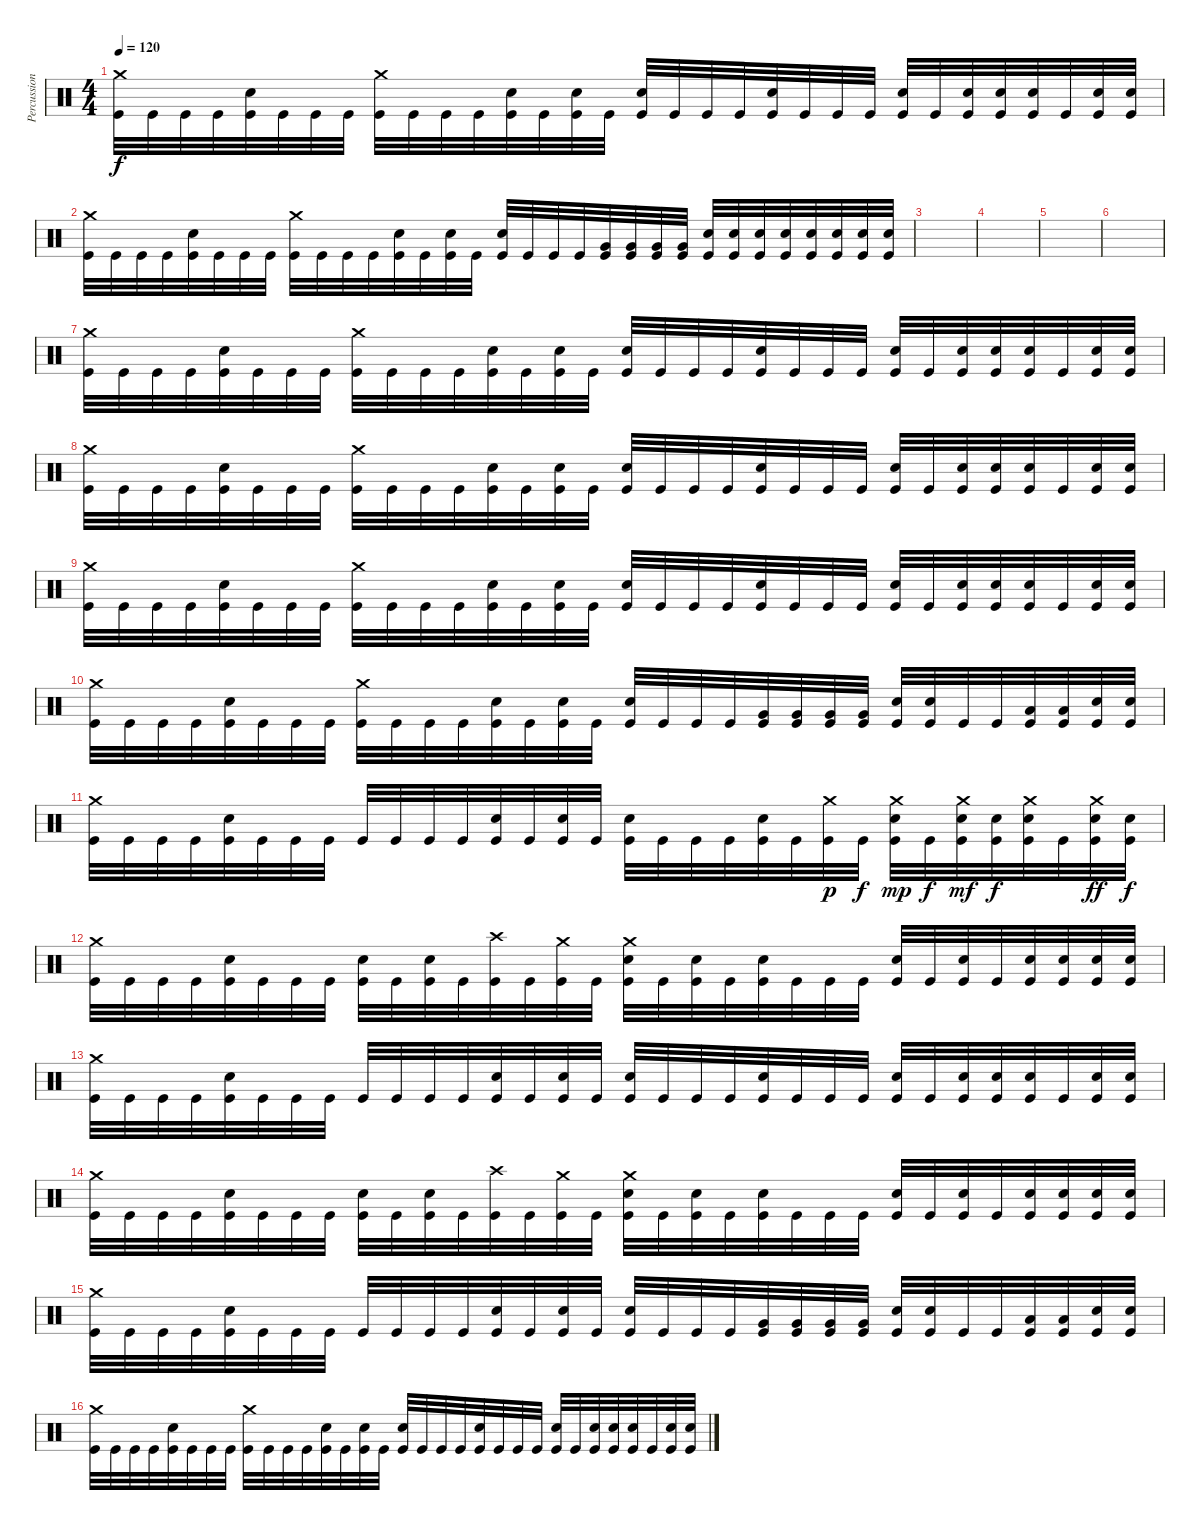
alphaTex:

\track ("Percussion" "Percussion") {instrument percussion}
\staff {score}
\articulation defaults
\ts (4 4)
\tempo 120
\clef neutral
\ks c
("Crash medium (hit)" "Kick (hit)").32{dy f} "Kick (hit)".32 "Kick (hit)".32 "Kick (hit)".32 ("Electric Snare (hit)" "Kick (hit)").32 "Kick (hit)".32 "Kick (hit)".32 "Kick (hit)".32 ("Crash medium (hit)" "Kick (hit)").32 "Kick (hit)".32 "Kick (hit)".32 "Kick (hit)".32 ("Electric Snare (hit)" "Kick (hit)").32 "Kick (hit)".32 ("Electric Snare (hit)" "Kick (hit)").32 "Kick (hit)".32 ("Electric Snare (hit)" "Kick (hit)").32 "Kick (hit)".32 "Kick (hit)".32 "Kick (hit)".32 ("Electric Snare (hit)" "Kick (hit)").32 "Kick (hit)".32 "Kick (hit)".32 "Kick (hit)".32 ("Electric Snare (hit)" "Kick (hit)").32 "Kick (hit)".32 ("Electric Snare (hit)" "Kick (hit)").32 ("Electric Snare (hit)" "Kick (hit)").32 ("Electric Snare (hit)" "Kick (hit)").32 "Kick (hit)".32 ("Electric Snare (hit)" "Kick (hit)").32 ("Electric Snare (hit)" "Kick (hit)").32 |
("Crash medium (hit)" "Kick (hit)").32 "Kick (hit)".32 "Kick (hit)".32 "Kick (hit)".32 ("Electric Snare (hit)" "Kick (hit)").32 "Kick (hit)".32 "Kick (hit)".32 "Kick (hit)".32 ("Crash medium (hit)" "Kick (hit)").32 "Kick (hit)".32 "Kick (hit)".32 "Kick (hit)".32 ("Electric Snare (hit)" "Kick (hit)").32 "Kick (hit)".32 ("Electric Snare (hit)" "Kick (hit)").32 "Kick (hit)".32 ("Electric Snare (hit)" "Kick (hit)").32 "Kick (hit)".32 "Kick (hit)".32 "Kick (hit)".32 ("Very Low Tom (hit)" "Kick (hit)").32 ("Very Low Tom (hit)" "Kick (hit)").32 ("Very Low Tom (hit)" "Kick (hit)").32 ("Very Low Tom (hit)" "Kick (hit)").32 ("Electric Snare (hit)" "Kick (hit)").32 ("Electric Snare (hit)" "Kick (hit)").32 ("Electric Snare (hit)" "Kick (hit)").32 ("Electric Snare (hit)" "Kick (hit)").32 ("Electric Snare (hit)" "Kick (hit)").32 ("Electric Snare (hit)" "Kick (hit)").32 ("Electric Snare (hit)" "Kick (hit)").32 ("Electric Snare (hit)" "Kick (hit)").32 |
|
|
|
|
("Crash medium (hit)" "Kick (hit)").32 "Kick (hit)".32 "Kick (hit)".32 "Kick (hit)".32 ("Electric Snare (hit)" "Kick (hit)").32 "Kick (hit)".32 "Kick (hit)".32 "Kick (hit)".32 ("Crash medium (hit)" "Kick (hit)").32 "Kick (hit)".32 "Kick (hit)".32 "Kick (hit)".32 ("Electric Snare (hit)" "Kick (hit)").32 "Kick (hit)".32 ("Electric Snare (hit)" "Kick (hit)").32 "Kick (hit)".32 ("Electric Snare (hit)" "Kick (hit)").32 "Kick (hit)".32 "Kick (hit)".32 "Kick (hit)".32 ("Electric Snare (hit)" "Kick (hit)").32 "Kick (hit)".32 "Kick (hit)".32 "Kick (hit)".32 ("Electric Snare (hit)" "Kick (hit)").32 "Kick (hit)".32 ("Electric Snare (hit)" "Kick (hit)").32 ("Electric Snare (hit)" "Kick (hit)").32 ("Electric Snare (hit)" "Kick (hit)").32 "Kick (hit)".32 ("Electric Snare (hit)" "Kick (hit)").32 ("Electric Snare (hit)" "Kick (hit)").32 |
("Crash medium (hit)" "Kick (hit)").32 "Kick (hit)".32 "Kick (hit)".32 "Kick (hit)".32 ("Electric Snare (hit)" "Kick (hit)").32 "Kick (hit)".32 "Kick (hit)".32 "Kick (hit)".32 ("Crash medium (hit)" "Kick (hit)").32 "Kick (hit)".32 "Kick (hit)".32 "Kick (hit)".32 ("Electric Snare (hit)" "Kick (hit)").32 "Kick (hit)".32 ("Electric Snare (hit)" "Kick (hit)").32 "Kick (hit)".32 ("Electric Snare (hit)" "Kick (hit)").32 "Kick (hit)".32 "Kick (hit)".32 "Kick (hit)".32 ("Electric Snare (hit)" "Kick (hit)").32 "Kick (hit)".32 "Kick (hit)".32 "Kick (hit)".32 ("Electric Snare (hit)" "Kick (hit)").32 "Kick (hit)".32 ("Electric Snare (hit)" "Kick (hit)").32 ("Electric Snare (hit)" "Kick (hit)").32 ("Electric Snare (hit)" "Kick (hit)").32 "Kick (hit)".32 ("Electric Snare (hit)" "Kick (hit)").32 ("Electric Snare (hit)" "Kick (hit)").32 |
("Crash medium (hit)" "Kick (hit)").32 "Kick (hit)".32 "Kick (hit)".32 "Kick (hit)".32 ("Electric Snare (hit)" "Kick (hit)").32 "Kick (hit)".32 "Kick (hit)".32 "Kick (hit)".32 ("Crash medium (hit)" "Kick (hit)").32 "Kick (hit)".32 "Kick (hit)".32 "Kick (hit)".32 ("Electric Snare (hit)" "Kick (hit)").32 "Kick (hit)".32 ("Electric Snare (hit)" "Kick (hit)").32 "Kick (hit)".32 ("Electric Snare (hit)" "Kick (hit)").32 "Kick (hit)".32 "Kick (hit)".32 "Kick (hit)".32 ("Electric Snare (hit)" "Kick (hit)").32 "Kick (hit)".32 "Kick (hit)".32 "Kick (hit)".32 ("Electric Snare (hit)" "Kick (hit)").32 "Kick (hit)".32 ("Electric Snare (hit)" "Kick (hit)").32 ("Electric Snare (hit)" "Kick (hit)").32 ("Electric Snare (hit)" "Kick (hit)").32 "Kick (hit)".32 ("Electric Snare (hit)" "Kick (hit)").32 ("Electric Snare (hit)" "Kick (hit)").32 |
("Crash medium (hit)" "Kick (hit)").32 "Kick (hit)".32 "Kick (hit)".32 "Kick (hit)".32 ("Electric Snare (hit)" "Kick (hit)").32 "Kick (hit)".32 "Kick (hit)".32 "Kick (hit)".32 ("Crash medium (hit)" "Kick (hit)").32 "Kick (hit)".32 "Kick (hit)".32 "Kick (hit)".32 ("Electric Snare (hit)" "Kick (hit)").32 "Kick (hit)".32 ("Electric Snare (hit)" "Kick (hit)").32 "Kick (hit)".32 ("Electric Snare (hit)" "Kick (hit)").32 "Kick (hit)".32 "Kick (hit)".32 "Kick (hit)".32 ("Very Low Tom (hit)" "Kick (hit)").32 ("Very Low Tom (hit)" "Kick (hit)").32 ("Very Low Tom (hit)" "Kick (hit)").32 ("Very Low Tom (hit)" "Kick (hit)").32 ("Snare (hit) 2" "Kick (hit)").32 ("Snare (hit) 2" "Kick (hit)").32 "Kick (hit)".32 "Kick (hit)".32 ("Low Floor Tom (hit)" "Kick (hit)").32 ("Low Floor Tom (hit)" "Kick (hit)").32 ("Electric Snare (hit)" "Kick (hit)").32 ("Electric Snare (hit)" "Kick (hit)").32 |
("Crash medium (hit)" "Kick (hit)").32 "Kick (hit)".32 "Kick (hit)".32 "Kick (hit)".32 ("Electric Snare (hit)" "Kick (hit)").32 "Kick (hit)".32 "Kick (hit)".32 "Kick (hit)".32 "Kick (hit)".32 "Kick (hit)".32 "Kick (hit)".32 "Kick (hit)".32 ("Electric Snare (hit)" "Kick (hit)").32 "Kick (hit)".32 ("Electric Snare (hit)" "Kick (hit)").32 "Kick (hit)".32 ("Electric Snare (hit)" "Kick (hit)").32 "Kick (hit)".32 "Kick (hit)".32 "Kick (hit)".32 ("Electric Snare (hit)" "Kick (hit)").32 "Kick (hit)".32 ("Crash medium (hit)" "Kick (hit)").32{dy p} "Kick (hit)".32{dy f} ("Crash medium (hit)" "Electric Snare (hit)" "Kick (hit)").32{dy mp} "Kick (hit)".32{dy f} ("Crash medium (hit)" "Electric Snare (hit)" "Kick (hit)").32{dy mf} ("Electric Snare (hit)" "Kick (hit)").32{dy f} ("Crash medium (hit)" "Electric Snare (hit)" "Kick (hit)").32 "Kick (hit)".32 ("Crash medium (hit)" "Electric Snare (hit)" "Kick (hit)").32{dy ff} ("Electric Snare (hit)" "Kick (hit)").32{dy f} |
("Crash medium (hit)" "Kick (hit)").32 "Kick (hit)".32 "Kick (hit)".32 "Kick (hit)".32 ("Electric Snare (hit)" "Kick (hit)").32 "Kick (hit)".32 "Kick (hit)".32 "Kick (hit)".32 ("Electric Snare (hit)" "Kick (hit)").32 "Kick (hit)".32 ("Electric Snare (hit)" "Kick (hit)").32 "Kick (hit)".32 ("Crash high (hit)" "Kick (hit)").32 "Kick (hit)".32 ("Crash medium (hit)" "Kick (hit)").32 "Kick (hit)".32 ("Crash medium (hit)" "Electric Snare (hit)" "Kick (hit)").32 "Kick (hit)".32 ("Electric Snare (hit)" "Kick (hit)").32 "Kick (hit)".32 ("Electric Snare (hit)" "Kick (hit)").32 "Kick (hit)".32 "Kick (hit)".32 "Kick (hit)".32 ("Electric Snare (hit)" "Kick (hit)").32 "Kick (hit)".32 ("Electric Snare (hit)" "Kick (hit)").32 "Kick (hit)".32 ("Electric Snare (hit)" "Kick (hit)").32 ("Electric Snare (hit)" "Kick (hit)").32 ("Electric Snare (hit)" "Kick (hit)").32 ("Electric Snare (hit)" "Kick (hit)").32 |
("Crash medium (hit)" "Kick (hit)").32 "Kick (hit)".32 "Kick (hit)".32 "Kick (hit)".32 ("Electric Snare (hit)" "Kick (hit)").32 "Kick (hit)".32 "Kick (hit)".32 "Kick (hit)".32 "Kick (hit)".32 "Kick (hit)".32 "Kick (hit)".32 "Kick (hit)".32 ("Electric Snare (hit)" "Kick (hit)").32 "Kick (hit)".32 ("Electric Snare (hit)" "Kick (hit)").32 "Kick (hit)".32 ("Electric Snare (hit)" "Kick (hit)").32 "Kick (hit)".32 "Kick (hit)".32 "Kick (hit)".32 ("Electric Snare (hit)" "Kick (hit)").32 "Kick (hit)".32 "Kick (hit)".32 "Kick (hit)".32 ("Electric Snare (hit)" "Kick (hit)").32 "Kick (hit)".32 ("Electric Snare (hit)" "Kick (hit)").32 ("Electric Snare (hit)" "Kick (hit)").32 ("Electric Snare (hit)" "Kick (hit)").32 "Kick (hit)".32 ("Electric Snare (hit)" "Kick (hit)").32 ("Electric Snare (hit)" "Kick (hit)").32 |
("Crash medium (hit)" "Kick (hit)").32 "Kick (hit)".32 "Kick (hit)".32 "Kick (hit)".32 ("Electric Snare (hit)" "Kick (hit)").32 "Kick (hit)".32 "Kick (hit)".32 "Kick (hit)".32 ("Electric Snare (hit)" "Kick (hit)").32 "Kick (hit)".32 ("Electric Snare (hit)" "Kick (hit)").32 "Kick (hit)".32 ("Crash high (hit)" "Kick (hit)").32 "Kick (hit)".32 ("Crash medium (hit)" "Kick (hit)").32 "Kick (hit)".32 ("Crash medium (hit)" "Electric Snare (hit)" "Kick (hit)").32 "Kick (hit)".32 ("Electric Snare (hit)" "Kick (hit)").32 "Kick (hit)".32 ("Electric Snare (hit)" "Kick (hit)").32 "Kick (hit)".32 "Kick (hit)".32 "Kick (hit)".32 ("Electric Snare (hit)" "Kick (hit)").32 "Kick (hit)".32 ("Electric Snare (hit)" "Kick (hit)").32 "Kick (hit)".32 ("Electric Snare (hit)" "Kick (hit)").32 ("Electric Snare (hit)" "Kick (hit)").32 ("Electric Snare (hit)" "Kick (hit)").32 ("Electric Snare (hit)" "Kick (hit)").32 |
("Crash medium (hit)" "Kick (hit)").32 "Kick (hit)".32 "Kick (hit)".32 "Kick (hit)".32 ("Electric Snare (hit)" "Kick (hit)").32 "Kick (hit)".32 "Kick (hit)".32 "Kick (hit)".32 "Kick (hit)".32 "Kick (hit)".32 "Kick (hit)".32 "Kick (hit)".32 ("Electric Snare (hit)" "Kick (hit)").32 "Kick (hit)".32 ("Electric Snare (hit)" "Kick (hit)").32 "Kick (hit)".32 ("Electric Snare (hit)" "Kick (hit)").32 "Kick (hit)".32 "Kick (hit)".32 "Kick (hit)".32 ("Very Low Tom (hit)" "Kick (hit)").32 ("Very Low Tom (hit)" "Kick (hit)").32 ("Very Low Tom (hit)" "Kick (hit)").32 ("Very Low Tom (hit)" "Kick (hit)").32 ("Snare (hit) 2" "Kick (hit)").32 ("Snare (hit) 2" "Kick (hit)").32 "Kick (hit)".32 "Kick (hit)".32 ("Low Floor Tom (hit)" "Kick (hit)").32 ("Low Floor Tom (hit)" "Kick (hit)").32 ("Electric Snare (hit)" "Kick (hit)").32 ("Electric Snare (hit)" "Kick (hit)").32 |
("Crash medium (hit)" "Kick (hit)").32 "Kick (hit)".32 "Kick (hit)".32 "Kick (hit)".32 ("Electric Snare (hit)" "Kick (hit)").32 "Kick (hit)".32 "Kick (hit)".32 "Kick (hit)".32 ("Crash medium (hit)" "Kick (hit)").32 "Kick (hit)".32 "Kick (hit)".32 "Kick (hit)".32 ("Electric Snare (hit)" "Kick (hit)").32 "Kick (hit)".32 ("Electric Snare (hit)" "Kick (hit)").32 "Kick (hit)".32 ("Electric Snare (hit)" "Kick (hit)").32 "Kick (hit)".32 "Kick (hit)".32 "Kick (hit)".32 ("Electric Snare (hit)" "Kick (hit)").32 "Kick (hit)".32 "Kick (hit)".32 "Kick (hit)".32 ("Electric Snare (hit)" "Kick (hit)").32 "Kick (hit)".32 ("Electric Snare (hit)" "Kick (hit)").32 ("Electric Snare (hit)" "Kick (hit)").32 ("Electric Snare (hit)" "Kick (hit)").32 "Kick (hit)".32 ("Electric Snare (hit)" "Kick (hit)").32 ("Electric Snare (hit)" "Kick (hit)").32
